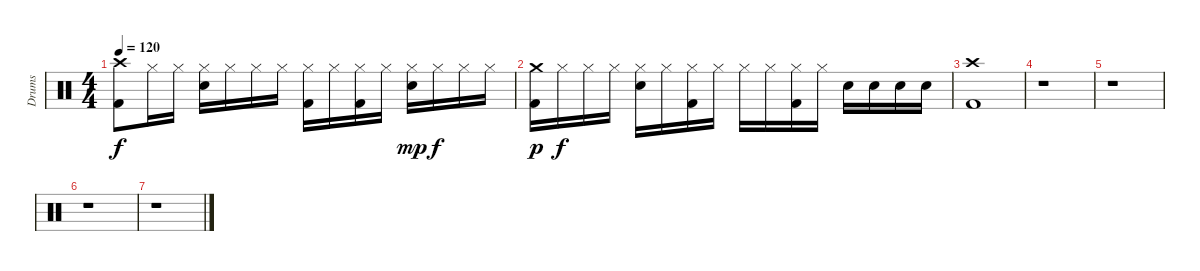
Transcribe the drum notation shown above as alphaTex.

\track ("Drums" "Drums") {instrument percussion}
\staff {score}
\articulation defaults
\ts (4 4)
\tempo 120
\clef neutral
\ks c
("Crash high (hit)" "Kick (hit) 2").8{dy f} "Hi-Hat (closed)".16 "Hi-Hat (closed)".16 ("Hi-Hat (closed)" "Electric Snare (hit)").16 "Hi-Hat (closed)".16 "Hi-Hat (closed)".16 "Hi-Hat (closed)".16 ("Hi-Hat (closed)" "Kick (hit) 2").16 "Hi-Hat (closed)".16 ("Hi-Hat (closed)" "Kick (hit) 2").16 "Hi-Hat (closed)".16 ("Hi-Hat (closed)" "Electric Snare (hit)").16{dy mp} "Hi-Hat (closed)".16{dy f} "Hi-Hat (closed)".16 "Hi-Hat (closed)".16 |
("Crash medium (hit)" "Kick (hit) 2").16{dy p} "Hi-Hat (closed)".16{dy f} "Hi-Hat (closed)".16 "Hi-Hat (closed)".16 ("Hi-Hat (closed)" "Electric Snare (hit)").16 "Hi-Hat (closed)".16 ("Hi-Hat (closed)" "Kick (hit) 2").16 "Hi-Hat (closed)".16 "Hi-Hat (closed)".16 "Hi-Hat (closed)".16 ("Hi-Hat (closed)" "Kick (hit) 2").16 "Hi-Hat (closed)".16 "Electric Snare (hit)".16 "Electric Snare (hit)".16 "Electric Snare (hit)".16 "Electric Snare (hit)".16 |
("Crash high (hit)" "Kick (hit) 2").1 |
r.1 |
r.1 |
r.1 |
r.1
